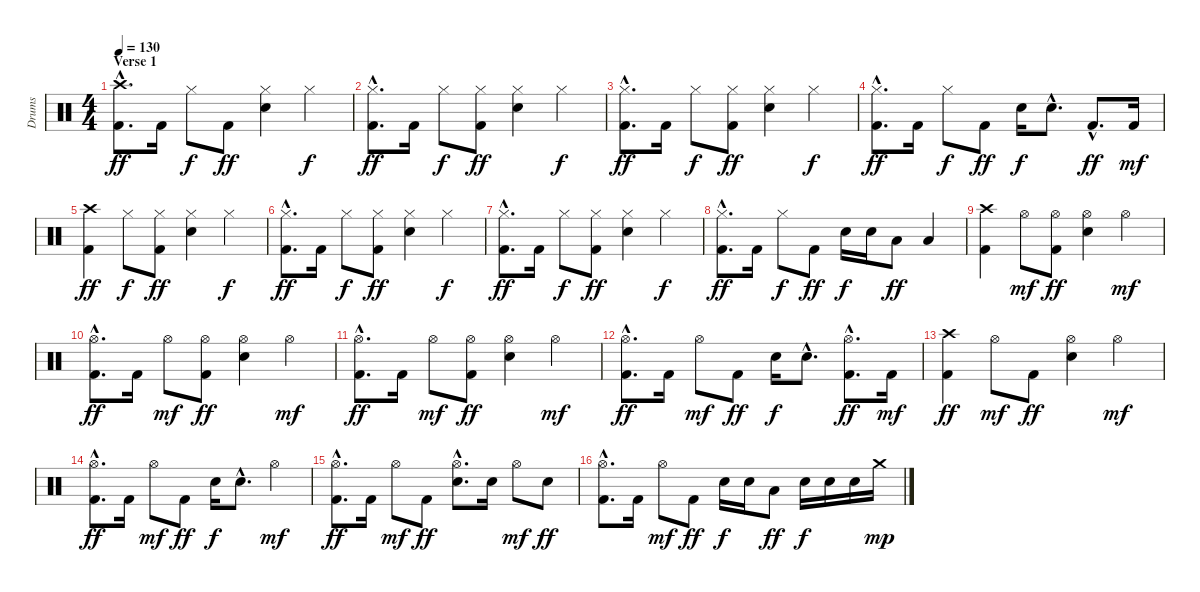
\track ("Drums" "Drums") {instrument percussion}
\staff {score}
\articulation defaults
\ts (4 4)
\section ("" "Verse 1")
\tempo 130
\clef neutral
\ks c
("Crash high (hit)"{hac} "Kick (hit) 2"{hac}).8{d dy ff} "Kick (hit) 2".16 "Hi-Hat (closed)".8{dy f} "Kick (hit) 2".8{dy ff} ("Hi-Hat (closed)" "Electric Snare (hit)").4 "Hi-Hat (closed)".4{dy f} |
("Hi-Hat (closed)"{hac} "Kick (hit) 2"{hac}).8{d dy ff} "Kick (hit) 2".16 "Hi-Hat (closed)".8{dy f} ("Hi-Hat (closed)" "Kick (hit) 2").8{dy ff} ("Hi-Hat (closed)" "Electric Snare (hit)").4 "Hi-Hat (closed)".4{dy f} |
("Hi-Hat (closed)"{hac} "Kick (hit) 2"{hac}).8{d dy ff} "Kick (hit) 2".16 "Hi-Hat (closed)".8{dy f} ("Hi-Hat (closed)" "Kick (hit) 2").8{dy ff} ("Hi-Hat (closed)" "Electric Snare (hit)").4 "Hi-Hat (closed)".4{dy f} |
("Hi-Hat (closed)"{hac} "Kick (hit) 2"{hac}).8{d dy ff} "Kick (hit) 2".16 "Hi-Hat (closed)".8{dy f} "Kick (hit) 2".8{dy ff} "Electric Snare (hit)".16{dy f} "Electric Snare (hit)"{hac}.8{d} "Kick (hit) 2"{hac}.8{d dy ff} "Kick (hit) 2".16{dy mf} |
("Crash high (hit)" "Kick (hit) 2").4{dy ff} "Hi-Hat (closed)".8{dy f} ("Hi-Hat (closed)" "Kick (hit) 2").8{dy ff} ("Hi-Hat (closed)" "Electric Snare (hit)").4 "Hi-Hat (closed)".4{dy f} |
("Hi-Hat (closed)"{hac} "Kick (hit) 2"{hac}).8{d dy ff} "Kick (hit) 2".16 "Hi-Hat (closed)".8{dy f} ("Hi-Hat (closed)" "Kick (hit) 2").8{dy ff} ("Hi-Hat (closed)" "Electric Snare (hit)").4 "Hi-Hat (closed)".4{dy f} |
("Hi-Hat (closed)"{hac} "Kick (hit) 2"{hac}).8{d dy ff} "Kick (hit) 2".16 "Hi-Hat (closed)".8{dy f} ("Hi-Hat (closed)" "Kick (hit) 2").8{dy ff} ("Hi-Hat (closed)" "Electric Snare (hit)").4 "Hi-Hat (closed)".4{dy f} |
("Hi-Hat (closed)"{hac} "Kick (hit) 2"{hac}).8{d dy ff} "Kick (hit) 2".16 "Hi-Hat (closed)".8{dy f} "Kick (hit) 2".8{dy ff} "Electric Snare (hit)".16{dy f} "Electric Snare (hit)".16 "Low Tom (hit)".8{dy ff} "Low Tom (hit)".4 |
("Crash high (hit)" "Kick (hit) 2").4 "Hi-Hat (open)".8{dy mf} ("Hi-Hat (open)" "Kick (hit) 2").8{dy ff} ("Hi-Hat (open)" "Electric Snare (hit)").4 "Hi-Hat (open)".4{dy mf} |
("Hi-Hat (open)"{hac} "Kick (hit) 2"{hac}).8{d dy ff} "Kick (hit) 2".16 "Hi-Hat (open)".8{dy mf} ("Hi-Hat (open)" "Kick (hit) 2").8{dy ff} ("Hi-Hat (open)" "Electric Snare (hit)").4 "Hi-Hat (open)".4{dy mf} |
("Hi-Hat (open)"{hac} "Kick (hit) 2"{hac}).8{d dy ff} "Kick (hit) 2".16 "Hi-Hat (open)".8{dy mf} ("Hi-Hat (open)" "Kick (hit) 2").8{dy ff} ("Hi-Hat (open)" "Electric Snare (hit)").4 "Hi-Hat (open)".4{dy mf} |
("Hi-Hat (open)"{hac} "Kick (hit) 2"{hac}).8{d dy ff} "Kick (hit) 2".16 "Hi-Hat (open)".8{dy mf} "Kick (hit) 2".8{dy ff} "Electric Snare (hit)".16{dy f} "Electric Snare (hit)"{hac}.8{d} ("Hi-Hat (open)"{hac} "Kick (hit) 2"{hac}).8{d dy ff} "Kick (hit) 2".16{dy mf} |
("Crash high (hit)" "Kick (hit) 2").4{dy ff} "Hi-Hat (open)".8{dy mf} "Kick (hit) 2".8{dy ff} ("Hi-Hat (open)" "Electric Snare (hit)").4 "Hi-Hat (open)".4{dy mf} |
("Hi-Hat (open)"{hac} "Kick (hit) 2"{hac}).8{d dy ff} "Kick (hit) 2".16 "Hi-Hat (open)".8{dy mf} "Kick (hit) 2".8{dy ff} "Electric Snare (hit)".16{dy f} "Electric Snare (hit)"{hac}.8{d} "Hi-Hat (open)".4{dy mf} |
("Hi-Hat (open)"{hac} "Kick (hit) 2"{hac}).8{d dy ff} "Kick (hit) 2".16 "Hi-Hat (open)".8{dy mf} "Kick (hit) 2".8{dy ff} ("Hi-Hat (open)"{hac} "Electric Snare (hit)"{hac}).8{d} "Electric Snare (hit)".16 "Hi-Hat (open)".8{dy mf} "Electric Snare (hit)".8{dy ff} |
("Hi-Hat (open)"{hac} "Kick (hit) 2"{hac}).8{d} "Kick (hit) 2".16 "Hi-Hat (open)".8{dy mf} "Kick (hit) 2".8{dy ff} "Electric Snare (hit)".16{dy f} "Electric Snare (hit)".16 "Low Tom (hit)".8{dy ff} "Electric Snare (hit)".16{dy f} "Electric Snare (hit)".16 "Electric Snare (hit)".16 "Crash medium (hit)".16{dy mp}
